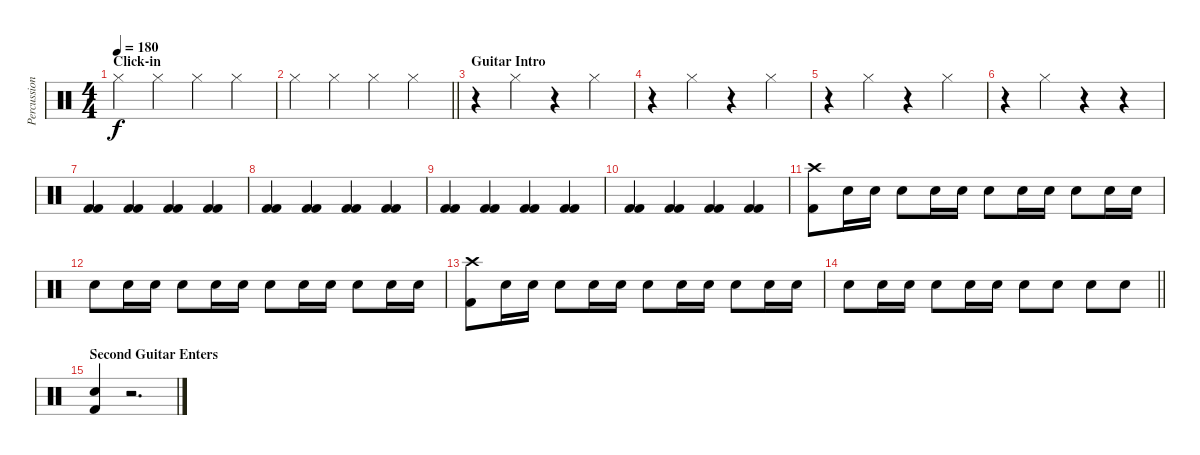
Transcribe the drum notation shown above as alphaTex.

\track ("Percussion" "Percussion") {instrument percussion}
\staff {score}
\articulation defaults
\ts (4 4)
\section ("" "Click-in")
\tempo 180
\clef neutral
\ks c "Hi-Hat (closed)".4{dy f} "Hi-Hat (closed)".4 "Hi-Hat (closed)".4 "Hi-Hat (closed)".4
|
\barLineRight lightlight "Hi-Hat (closed)".4 "Hi-Hat (closed)".4 "Hi-Hat (closed)".4 "Hi-Hat (closed)".4
|
\section ("" "Guitar Intro")
r.4 "Hi-Hat (closed)".4 r.4 "Hi-Hat (closed)".4 |
r.4 "Hi-Hat (closed)".4 r.4 "Hi-Hat (closed)".4 |
r.4 "Hi-Hat (closed)".4 r.4 "Hi-Hat (closed)".4 |
r.4 "Hi-Hat (closed)".4 r.4 r.4 |
("Kick (hit) 2" "Kick (hit) 2").4 ("Kick (hit) 2" "Kick (hit) 2").4 ("Kick (hit) 2" "Kick (hit) 2").4 ("Kick (hit) 2" "Kick (hit) 2").4 |
("Kick (hit) 2" "Kick (hit) 2").4 ("Kick (hit) 2" "Kick (hit) 2").4 ("Kick (hit) 2" "Kick (hit) 2").4 ("Kick (hit) 2" "Kick (hit) 2").4 |
("Kick (hit) 2" "Kick (hit) 2").4 ("Kick (hit) 2" "Kick (hit) 2").4 ("Kick (hit) 2" "Kick (hit) 2").4 ("Kick (hit) 2" "Kick (hit) 2").4 |
("Kick (hit) 2" "Kick (hit) 2").4 ("Kick (hit) 2" "Kick (hit) 2").4 ("Kick (hit) 2" "Kick (hit) 2").4 ("Kick (hit) 2" "Kick (hit) 2").4 |
("Crash high (hit)" "Kick (hit) 2").8 "Snare (hit) 2".16 "Snare (hit) 2".16 "Snare (hit) 2".8 "Snare (hit) 2".16 "Snare (hit) 2".16 "Snare (hit) 2".8 "Snare (hit) 2".16 "Snare (hit) 2".16 "Snare (hit) 2".8 "Snare (hit) 2".16 "Snare (hit) 2".16 |
"Snare (hit) 2".8 "Snare (hit) 2".16 "Snare (hit) 2".16 "Snare (hit) 2".8 "Snare (hit) 2".16 "Snare (hit) 2".16 "Snare (hit) 2".8 "Snare (hit) 2".16 "Snare (hit) 2".16 "Snare (hit) 2".8 "Snare (hit) 2".16 "Snare (hit) 2".16 |
("Crash high (hit)" "Kick (hit) 2").8 "Snare (hit) 2".16 "Snare (hit) 2".16 "Snare (hit) 2".8 "Snare (hit) 2".16 "Snare (hit) 2".16 "Snare (hit) 2".8 "Snare (hit) 2".16 "Snare (hit) 2".16 "Snare (hit) 2".8 "Snare (hit) 2".16 "Snare (hit) 2".16 |
\barLineRight lightlight "Snare (hit) 2".8 "Snare (hit) 2".16 "Snare (hit) 2".16 "Snare (hit) 2".8 "Snare (hit) 2".16 "Snare (hit) 2".16 "Snare (hit) 2".8 "Snare (hit) 2".8 "Snare (hit) 2".8 "Snare (hit) 2".8
|
\section ("" "Second Guitar Enters")
("Snare (hit) 2" "Kick (hit) 2").4 r.2{d}
